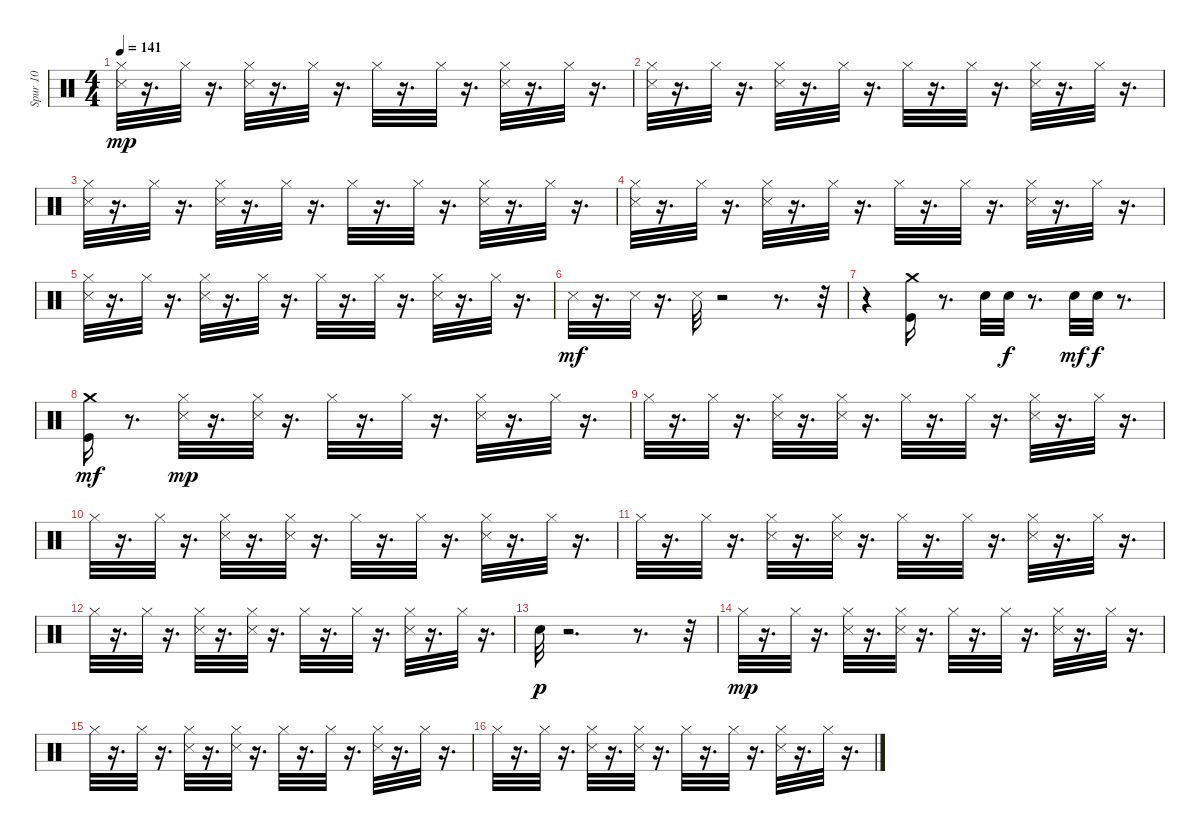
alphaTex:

\track ("Spur 10" "Spur 10") {instrument percussion}
\staff {score}
\articulation defaults
\ts (4 4)
\tempo 141
\clef neutral
\ks c
("Snare (side stick) 3" "Hi-Hat (closed)").32{dy mp} r.16{d} "Hi-Hat (closed)".32 r.16{d} ("Snare (side stick) 3" "Hi-Hat (closed)").32 r.16{d} "Hi-Hat (closed)".32 r.16{d} "Hi-Hat (closed)".32 r.16{d} "Hi-Hat (closed)".32 r.16{d} ("Snare (side stick) 3" "Hi-Hat (closed)").32 r.16{d} "Hi-Hat (closed)".32 r.16{d} |
("Snare (side stick) 3" "Hi-Hat (closed)").32 r.16{d} "Hi-Hat (closed)".32 r.16{d} ("Snare (side stick) 3" "Hi-Hat (closed)").32 r.16{d} "Hi-Hat (closed)".32 r.16{d} "Hi-Hat (closed)".32 r.16{d} "Hi-Hat (closed)".32 r.16{d} ("Snare (side stick) 3" "Hi-Hat (closed)").32 r.16{d} "Hi-Hat (closed)".32 r.16{d} |
("Snare (side stick) 3" "Hi-Hat (closed)").32 r.16{d} "Hi-Hat (closed)".32 r.16{d} ("Snare (side stick) 3" "Hi-Hat (closed)").32 r.16{d} "Hi-Hat (closed)".32 r.16{d} "Hi-Hat (closed)".32 r.16{d} "Hi-Hat (closed)".32 r.16{d} ("Snare (side stick) 3" "Hi-Hat (closed)").32 r.16{d} "Hi-Hat (closed)".32 r.16{d} |
("Snare (side stick) 3" "Hi-Hat (closed)").32 r.16{d} "Hi-Hat (closed)".32 r.16{d} ("Snare (side stick) 3" "Hi-Hat (closed)").32 r.16{d} "Hi-Hat (closed)".32 r.16{d} "Hi-Hat (closed)".32 r.16{d} "Hi-Hat (closed)".32 r.16{d} ("Snare (side stick) 3" "Hi-Hat (closed)").32 r.16{d} "Hi-Hat (closed)".32 r.16{d} |
("Snare (side stick) 3" "Hi-Hat (closed)").32 r.16{d} "Hi-Hat (closed)".32 r.16{d} ("Snare (side stick) 3" "Hi-Hat (closed)").32 r.16{d} "Hi-Hat (closed)".32 r.16{d} "Hi-Hat (closed)".32 r.16{d} "Hi-Hat (closed)".32 r.16{d} ("Snare (side stick) 3" "Hi-Hat (closed)").32 r.16{d} "Hi-Hat (closed)".32 r.16{d} |
"Snare (side stick) 3".32{dy mf} r.16{d} "Snare (side stick) 3".32 r.16{d} "Snare (side stick) 3".32 r.2 r.8{d} r.32 |
r.4 ("Kick (hit)" "Crash medium (hit)").16 r.8{d} "Electric Snare (hit)".32 "Electric Snare (hit)".32{dy f} r.8{d} "Snare (hit) 2".32{dy mf} "Snare (hit) 2".32{dy f} r.8{d} |
("Crash medium (hit)" "Kick (hit)").16{dy mf} r.8{d} ("Snare (side stick) 3" "Hi-Hat (closed)").32{dy mp} r.16{d} ("Snare (side stick) 3" "Hi-Hat (closed)").32 r.16{d} "Hi-Hat (closed)".32 r.16{d} "Hi-Hat (closed)".32 r.16{d} ("Snare (side stick) 3" "Hi-Hat (closed)").32 r.16{d} "Hi-Hat (closed)".32 r.16{d} |
"Hi-Hat (closed)".32 r.16{d} "Hi-Hat (closed)".32 r.16{d} ("Snare (side stick) 3" "Hi-Hat (closed)").32 r.16{d} ("Snare (side stick) 3" "Hi-Hat (closed)").32 r.16{d} "Hi-Hat (closed)".32 r.16{d} "Hi-Hat (closed)".32 r.16{d} ("Snare (side stick) 3" "Hi-Hat (closed)").32 r.16{d} "Hi-Hat (closed)".32 r.16{d} |
"Hi-Hat (closed)".32 r.16{d} "Hi-Hat (closed)".32 r.16{d} ("Snare (side stick) 3" "Hi-Hat (closed)").32 r.16{d} ("Snare (side stick) 3" "Hi-Hat (closed)").32 r.16{d} "Hi-Hat (closed)".32 r.16{d} "Hi-Hat (closed)".32 r.16{d} ("Snare (side stick) 3" "Hi-Hat (closed)").32 r.16{d} "Hi-Hat (closed)".32 r.16{d} |
"Hi-Hat (closed)".32 r.16{d} "Hi-Hat (closed)".32 r.16{d} ("Snare (side stick) 3" "Hi-Hat (closed)").32 r.16{d} ("Snare (side stick) 3" "Hi-Hat (closed)").32 r.16{d} "Hi-Hat (closed)".32 r.16{d} "Hi-Hat (closed)".32 r.16{d} ("Snare (side stick) 3" "Hi-Hat (closed)").32 r.16{d} "Hi-Hat (closed)".32 r.16{d} |
"Hi-Hat (closed)".32 r.16{d} "Hi-Hat (closed)".32 r.16{d} ("Snare (side stick) 3" "Hi-Hat (closed)").32 r.16{d} ("Snare (side stick) 3" "Hi-Hat (closed)").32 r.16{d} "Hi-Hat (closed)".32 r.16{d} "Hi-Hat (closed)".32 r.16{d} ("Snare (side stick) 3" "Hi-Hat (closed)").32 r.16{d} "Hi-Hat (closed)".32 r.16{d} |
"Snare (hit) 2".32{dy p} r.2{d} r.8{d} r.32 |
"Hi-Hat (closed)".32{dy mp} r.16{d} "Hi-Hat (closed)".32 r.16{d} ("Snare (side stick) 3" "Hi-Hat (closed)").32 r.16{d} ("Snare (side stick) 3" "Hi-Hat (closed)").32 r.16{d} "Hi-Hat (closed)".32 r.16{d} "Hi-Hat (closed)".32 r.16{d} ("Snare (side stick) 3" "Hi-Hat (closed)").32 r.16{d} "Hi-Hat (closed)".32 r.16{d} |
"Hi-Hat (closed)".32 r.16{d} "Hi-Hat (closed)".32 r.16{d} ("Snare (side stick) 3" "Hi-Hat (closed)").32 r.16{d} ("Snare (side stick) 3" "Hi-Hat (closed)").32 r.16{d} "Hi-Hat (closed)".32 r.16{d} "Hi-Hat (closed)".32 r.16{d} ("Snare (side stick) 3" "Hi-Hat (closed)").32 r.16{d} "Hi-Hat (closed)".32 r.16{d} |
"Hi-Hat (closed)".32 r.16{d} "Hi-Hat (closed)".32 r.16{d} ("Snare (side stick) 3" "Hi-Hat (closed)").32 r.16{d} ("Snare (side stick) 3" "Hi-Hat (closed)").32 r.16{d} "Hi-Hat (closed)".32 r.16{d} "Hi-Hat (closed)".32 r.16{d} ("Snare (side stick) 3" "Hi-Hat (closed)").32 r.16{d} "Hi-Hat (closed)".32 r.16{d}
